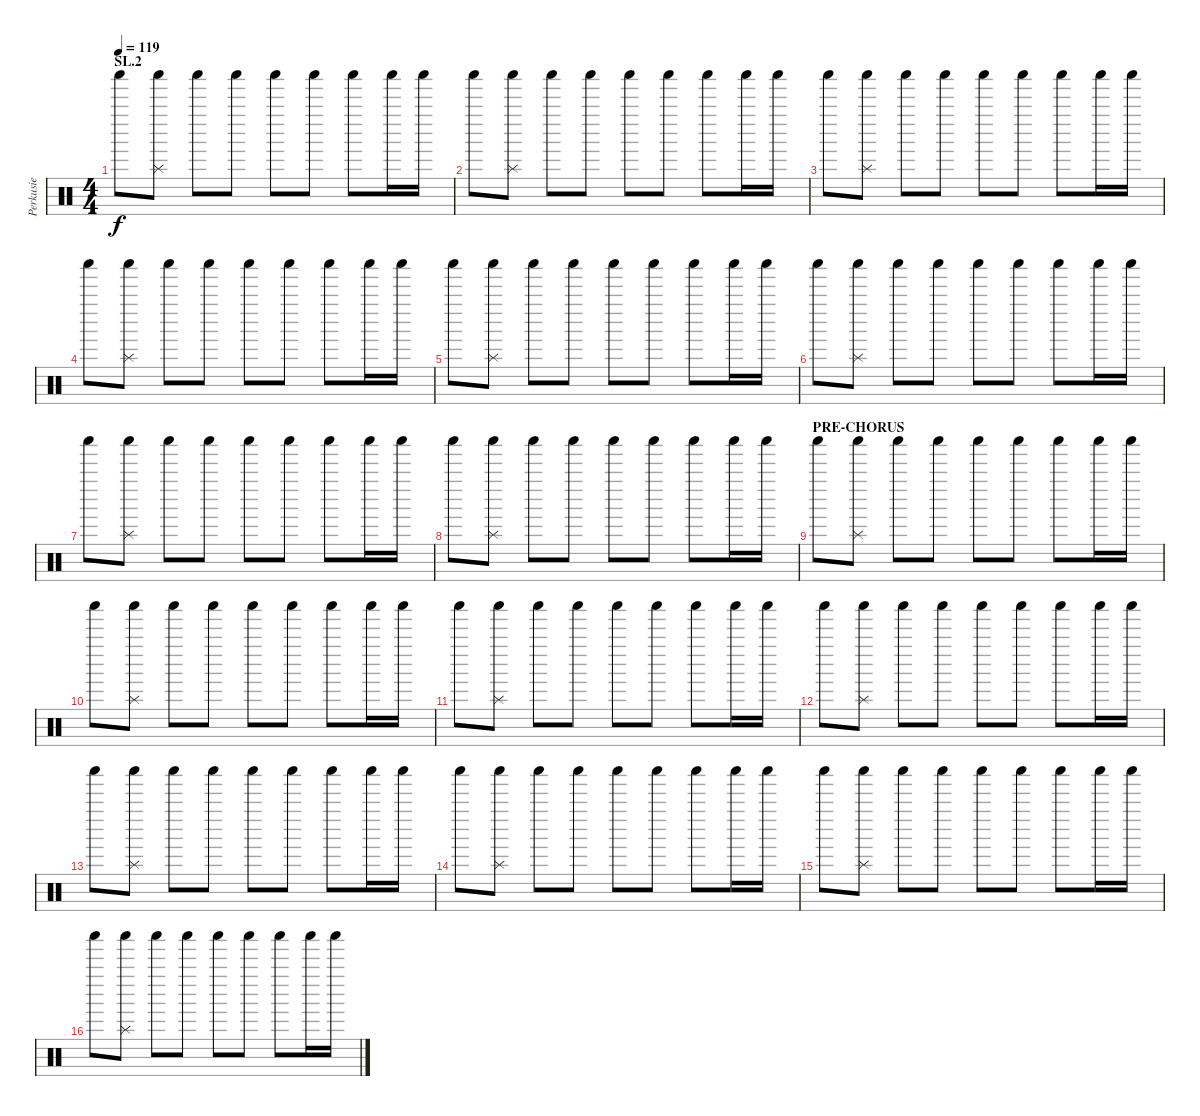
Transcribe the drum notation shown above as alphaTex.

\track ("Perkusie" "Perkusie") {instrument percussion}
\staff {score}
\articulation defaults
\ts (4 4)
\section ("" "SL.2")
\tempo 119
\clef neutral
\ks c "Shaker (hit)".8{dy f}
("Shaker (hit)" "Splash (hit)").8 "Shaker (hit)".8 "Shaker (hit)".8 "Shaker (hit)".8 "Shaker (hit)".8 "Shaker (hit)".8 "Shaker (hit)".16 "Shaker (hit)".16 |
"Shaker (hit)".8 ("Shaker (hit)" "Splash (hit)").8 "Shaker (hit)".8 "Shaker (hit)".8 "Shaker (hit)".8 "Shaker (hit)".8 "Shaker (hit)".8 "Shaker (hit)".16 "Shaker (hit)".16 |
"Shaker (hit)".8 ("Shaker (hit)" "Splash (hit)").8 "Shaker (hit)".8 "Shaker (hit)".8 "Shaker (hit)".8 "Shaker (hit)".8 "Shaker (hit)".8 "Shaker (hit)".16 "Shaker (hit)".16 |
"Shaker (hit)".8 ("Shaker (hit)" "Splash (hit)").8 "Shaker (hit)".8 "Shaker (hit)".8 "Shaker (hit)".8 "Shaker (hit)".8 "Shaker (hit)".8 "Shaker (hit)".16 "Shaker (hit)".16 |
"Shaker (hit)".8 ("Shaker (hit)" "Splash (hit)").8 "Shaker (hit)".8 "Shaker (hit)".8 "Shaker (hit)".8 "Shaker (hit)".8 "Shaker (hit)".8 "Shaker (hit)".16 "Shaker (hit)".16 |
"Shaker (hit)".8 ("Shaker (hit)" "Splash (hit)").8 "Shaker (hit)".8 "Shaker (hit)".8 "Shaker (hit)".8 "Shaker (hit)".8 "Shaker (hit)".8 "Shaker (hit)".16 "Shaker (hit)".16 |
"Shaker (hit)".8 ("Shaker (hit)" "Splash (hit)").8 "Shaker (hit)".8 "Shaker (hit)".8 "Shaker (hit)".8 "Shaker (hit)".8 "Shaker (hit)".8 "Shaker (hit)".16 "Shaker (hit)".16 |
"Shaker (hit)".8 ("Shaker (hit)" "Splash (hit)").8 "Shaker (hit)".8 "Shaker (hit)".8 "Shaker (hit)".8 "Shaker (hit)".8 "Shaker (hit)".8 "Shaker (hit)".16 "Shaker (hit)".16 |
\section ("" "PRE-CHORUS")
"Shaker (hit)".8 ("Shaker (hit)" "Splash (hit)").8 "Shaker (hit)".8 "Shaker (hit)".8 "Shaker (hit)".8 "Shaker (hit)".8 "Shaker (hit)".8 "Shaker (hit)".16 "Shaker (hit)".16 |
"Shaker (hit)".8 ("Shaker (hit)" "Splash (hit)").8 "Shaker (hit)".8 "Shaker (hit)".8 "Shaker (hit)".8 "Shaker (hit)".8 "Shaker (hit)".8 "Shaker (hit)".16 "Shaker (hit)".16 |
"Shaker (hit)".8 ("Shaker (hit)" "Splash (hit)").8 "Shaker (hit)".8 "Shaker (hit)".8 "Shaker (hit)".8 "Shaker (hit)".8 "Shaker (hit)".8 "Shaker (hit)".16 "Shaker (hit)".16 |
"Shaker (hit)".8 ("Shaker (hit)" "Splash (hit)").8 "Shaker (hit)".8 "Shaker (hit)".8 "Shaker (hit)".8 "Shaker (hit)".8 "Shaker (hit)".8 "Shaker (hit)".16 "Shaker (hit)".16 |
"Shaker (hit)".8 ("Shaker (hit)" "Splash (hit)").8 "Shaker (hit)".8 "Shaker (hit)".8 "Shaker (hit)".8 "Shaker (hit)".8 "Shaker (hit)".8 "Shaker (hit)".16 "Shaker (hit)".16 |
"Shaker (hit)".8 ("Shaker (hit)" "Splash (hit)").8 "Shaker (hit)".8 "Shaker (hit)".8 "Shaker (hit)".8 "Shaker (hit)".8 "Shaker (hit)".8 "Shaker (hit)".16 "Shaker (hit)".16 |
"Shaker (hit)".8 ("Shaker (hit)" "Splash (hit)").8 "Shaker (hit)".8 "Shaker (hit)".8 "Shaker (hit)".8 "Shaker (hit)".8 "Shaker (hit)".8 "Shaker (hit)".16 "Shaker (hit)".16 |
"Shaker (hit)".8 ("Shaker (hit)" "Splash (hit)").8 "Shaker (hit)".8 "Shaker (hit)".8 "Shaker (hit)".8 "Shaker (hit)".8 "Shaker (hit)".8 "Shaker (hit)".16 "Shaker (hit)".16
